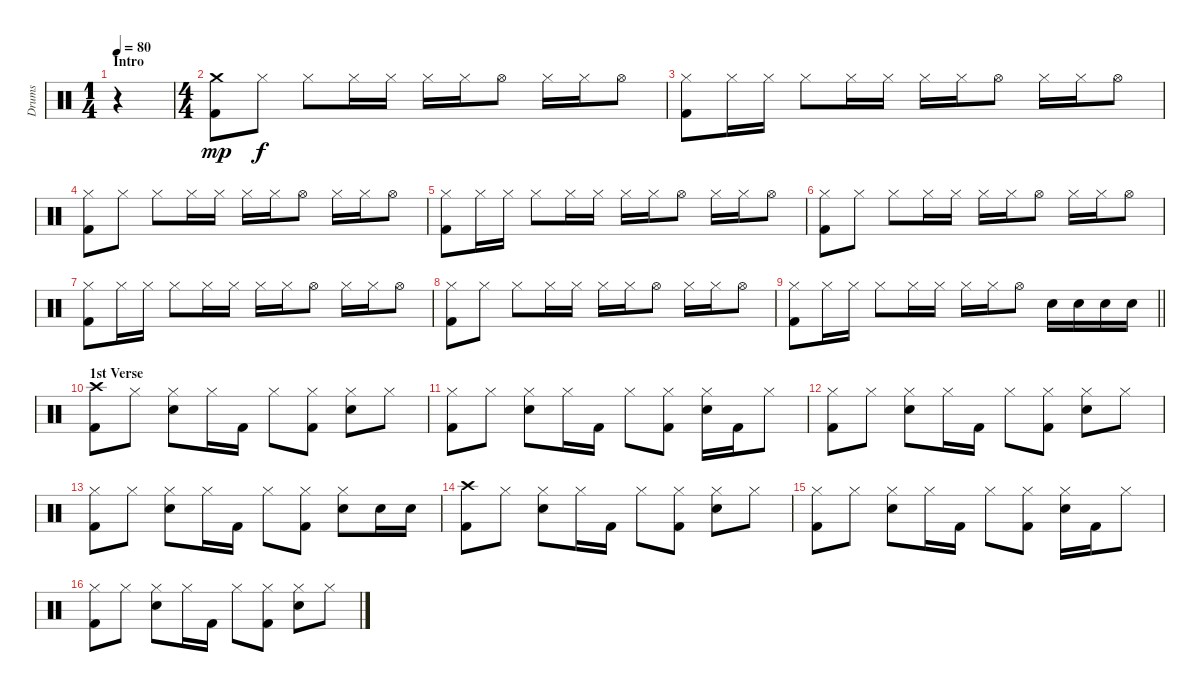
\track ("Drums" "Drums") {instrument percussion}
\staff {score}
\articulation defaults
\ts (1 4)
\section ("" "Intro")
\tempo 80
\clef neutral
\ks c
r.4{dy mp} |
\ts (4 4)
("Crash medium (hit)" "Kick (hit) 2").8 "Hi-Hat (closed)".8{dy f} "Hi-Hat (closed)".8 "Hi-Hat (closed)".16 "Hi-Hat (closed)".16 "Hi-Hat (closed)".16 "Hi-Hat (closed)".16 "Hi-Hat (open)".8 "Hi-Hat (closed)".16 "Hi-Hat (closed)".16 "Hi-Hat (open)".8 |
("Hi-Hat (closed)" "Kick (hit) 2").8 "Hi-Hat (closed)".16 "Hi-Hat (closed)".16 "Hi-Hat (closed)".8 "Hi-Hat (closed)".16 "Hi-Hat (closed)".16 "Hi-Hat (closed)".16 "Hi-Hat (closed)".16 "Hi-Hat (open)".8 "Hi-Hat (closed)".16 "Hi-Hat (closed)".16 "Hi-Hat (open)".8 |
("Hi-Hat (closed)" "Kick (hit) 2").8 "Hi-Hat (closed)".8 "Hi-Hat (closed)".8 "Hi-Hat (closed)".16 "Hi-Hat (closed)".16 "Hi-Hat (closed)".16 "Hi-Hat (closed)".16 "Hi-Hat (open)".8 "Hi-Hat (closed)".16 "Hi-Hat (closed)".16 "Hi-Hat (open)".8 |
("Hi-Hat (closed)" "Kick (hit) 2").8 "Hi-Hat (closed)".16 "Hi-Hat (closed)".16 "Hi-Hat (closed)".8 "Hi-Hat (closed)".16 "Hi-Hat (closed)".16 "Hi-Hat (closed)".16 "Hi-Hat (closed)".16 "Hi-Hat (open)".8 "Hi-Hat (closed)".16 "Hi-Hat (closed)".16 "Hi-Hat (open)".8 |
("Hi-Hat (closed)" "Kick (hit) 2").8 "Hi-Hat (closed)".8 "Hi-Hat (closed)".8 "Hi-Hat (closed)".16 "Hi-Hat (closed)".16 "Hi-Hat (closed)".16 "Hi-Hat (closed)".16 "Hi-Hat (open)".8 "Hi-Hat (closed)".16 "Hi-Hat (closed)".16 "Hi-Hat (open)".8 |
("Hi-Hat (closed)" "Kick (hit) 2").8 "Hi-Hat (closed)".16 "Hi-Hat (closed)".16 "Hi-Hat (closed)".8 "Hi-Hat (closed)".16 "Hi-Hat (closed)".16 "Hi-Hat (closed)".16 "Hi-Hat (closed)".16 "Hi-Hat (open)".8 "Hi-Hat (closed)".16 "Hi-Hat (closed)".16 "Hi-Hat (open)".8 |
("Hi-Hat (closed)" "Kick (hit) 2").8 "Hi-Hat (closed)".8 "Hi-Hat (closed)".8 "Hi-Hat (closed)".16 "Hi-Hat (closed)".16 "Hi-Hat (closed)".16 "Hi-Hat (closed)".16 "Hi-Hat (open)".8 "Hi-Hat (closed)".16 "Hi-Hat (closed)".16 "Hi-Hat (open)".8 |
\barLineRight lightlight
("Hi-Hat (closed)" "Kick (hit) 2").8 "Hi-Hat (closed)".16 "Hi-Hat (closed)".16 "Hi-Hat (closed)".8 "Hi-Hat (closed)".16 "Hi-Hat (closed)".16 "Hi-Hat (closed)".16 "Hi-Hat (closed)".16 "Hi-Hat (open)".8 "Snare (hit) 2".16 "Snare (hit) 2".16 "Snare (hit) 2".16 "Snare (hit) 2".16 |
\section ("" "1st Verse")
("Crash high (hit)" "Kick (hit) 2").8 "Hi-Hat (closed)".8 ("Hi-Hat (closed)" "Snare (hit) 2").8 "Hi-Hat (closed)".16 "Kick (hit) 2".16 "Hi-Hat (closed)".8 ("Hi-Hat (closed)" "Kick (hit) 2").8 ("Hi-Hat (closed)" "Snare (hit) 2").8 "Hi-Hat (closed)".8 |
("Hi-Hat (closed)" "Kick (hit) 2").8 "Hi-Hat (closed)".8 ("Hi-Hat (closed)" "Snare (hit) 2").8 "Hi-Hat (closed)".16 "Kick (hit) 2".16 "Hi-Hat (closed)".8 ("Hi-Hat (closed)" "Kick (hit) 2").8 ("Hi-Hat (closed)" "Snare (hit) 2").16 "Kick (hit) 2".16 "Hi-Hat (closed)".8 |
("Hi-Hat (closed)" "Kick (hit) 2").8 "Hi-Hat (closed)".8 ("Hi-Hat (closed)" "Snare (hit) 2").8 "Hi-Hat (closed)".16 "Kick (hit) 2".16 "Hi-Hat (closed)".8 ("Hi-Hat (closed)" "Kick (hit) 2").8 ("Hi-Hat (closed)" "Snare (hit) 2").8 "Hi-Hat (closed)".8 |
("Hi-Hat (closed)" "Kick (hit) 2").8 "Hi-Hat (closed)".8 ("Hi-Hat (closed)" "Snare (hit) 2").8 "Hi-Hat (closed)".16 "Kick (hit) 2".16 "Hi-Hat (closed)".8 ("Hi-Hat (closed)" "Kick (hit) 2").8 ("Hi-Hat (closed)" "Snare (hit) 2").8 "Snare (hit) 2".16 "Snare (hit) 2".16 |
("Crash high (hit)" "Kick (hit) 2").8 "Hi-Hat (closed)".8 ("Hi-Hat (closed)" "Snare (hit) 2").8 "Hi-Hat (closed)".16 "Kick (hit) 2".16 "Hi-Hat (closed)".8 ("Hi-Hat (closed)" "Kick (hit) 2").8 ("Hi-Hat (closed)" "Snare (hit) 2").8 "Hi-Hat (closed)".8 |
("Hi-Hat (closed)" "Kick (hit) 2").8 "Hi-Hat (closed)".8 ("Hi-Hat (closed)" "Snare (hit) 2").8 "Hi-Hat (closed)".16 "Kick (hit) 2".16 "Hi-Hat (closed)".8 ("Hi-Hat (closed)" "Kick (hit) 2").8 ("Hi-Hat (closed)" "Snare (hit) 2").16 "Kick (hit) 2".16 "Hi-Hat (closed)".8 |
("Hi-Hat (closed)" "Kick (hit) 2").8 "Hi-Hat (closed)".8 ("Hi-Hat (closed)" "Snare (hit) 2").8 "Hi-Hat (closed)".16 "Kick (hit) 2".16 "Hi-Hat (closed)".8 ("Hi-Hat (closed)" "Kick (hit) 2").8 ("Hi-Hat (closed)" "Snare (hit) 2").8 "Hi-Hat (closed)".8
